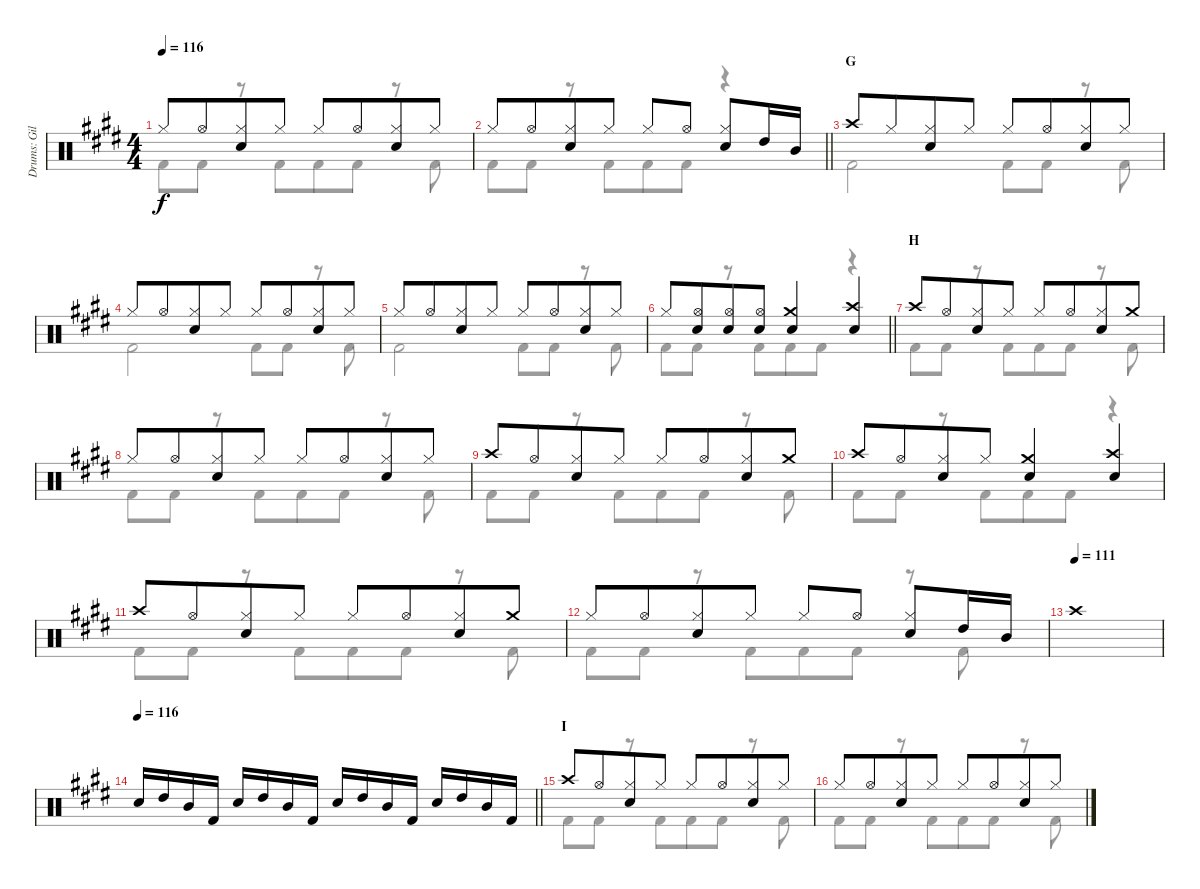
\track ("Drums: Gil" "Drums: Gil") {instrument percussion}
\staff {score}
\articulation defaults
\voice
\ts (4 4)
\tempo 116
\clef neutral
\ks e "Hi-Hat (closed)".8{dy f} "Hi-Hat (open)".8{beam merge}
("Hi-Hat (closed)" "Snare (hit) 2").8 "Hi-Hat (closed)".8 "Hi-Hat (closed)".8 "Hi-Hat (open)".8{beam merge} ("Hi-Hat (closed)" "Snare (hit) 2").8 "Hi-Hat (closed)".8 |
\barLineRight lightlight "Hi-Hat (closed)".8 "Hi-Hat (open)".8{beam merge}
("Hi-Hat (closed)" "Snare (hit) 2").8 "Hi-Hat (closed)".8 "Hi-Hat (closed)".8 "Hi-Hat (open)".8 ("Hi-Hat (closed)" "Snare (hit) 2").8{beam merge} "High Tom (hit)".16 "Mid Tom (hit)".16 |
\section ("" "G")
"Crash high (hit)".8 "Hi-Hat (closed)".8{beam merge} ("Hi-Hat (closed)" "Snare (hit) 2").8 "Hi-Hat (closed)".8 "Hi-Hat (closed)".8 "Hi-Hat (open)".8{beam merge} ("Hi-Hat (closed)" "Snare (hit) 2").8 "Hi-Hat (closed)".8 |
"Hi-Hat (closed)".8 "Hi-Hat (open)".8{beam merge} ("Hi-Hat (closed)" "Snare (hit) 2").8 "Hi-Hat (closed)".8 "Hi-Hat (closed)".8 "Hi-Hat (open)".8{beam merge} ("Hi-Hat (closed)" "Snare (hit) 2").8 "Hi-Hat (closed)".8 |
"Hi-Hat (closed)".8 "Hi-Hat (open)".8{beam merge} ("Hi-Hat (closed)" "Snare (hit) 2").8 "Hi-Hat (closed)".8 "Hi-Hat (closed)".8 "Hi-Hat (open)".8{beam merge} ("Hi-Hat (closed)" "Snare (hit) 2").8 "Hi-Hat (closed)".8 |
\barLineRight lightlight "Hi-Hat (closed)".8
("Hi-Hat (open)" "Snare (hit) 2").8{beam merge} ("Hi-Hat (open)" "Snare (hit) 2").8 ("Hi-Hat (open)" "Snare (hit) 2").8 ("Crash medium (hit)" "Snare (hit) 2").4 ("Crash high (hit)" "Snare (hit) 2").4 |
\section ("" "H")
"Crash high (hit)".8 "Hi-Hat (open)".8{beam merge} ("Hi-Hat (closed)" "Snare (hit) 2").8 "Hi-Hat (closed)".8 "Hi-Hat (closed)".8 "Hi-Hat (open)".8{beam merge} ("Hi-Hat (closed)" "Snare (hit) 2").8 "Crash medium (hit)".8 |
"Hi-Hat (closed)".8 "Hi-Hat (open)".8{beam merge} ("Hi-Hat (closed)" "Snare (hit) 2").8 "Hi-Hat (closed)".8 "Hi-Hat (closed)".8 "Hi-Hat (open)".8{beam merge} ("Hi-Hat (closed)" "Snare (hit) 2").8 "Hi-Hat (closed)".8 |
"Crash high (hit)".8 "Hi-Hat (open)".8{beam merge} ("Hi-Hat (closed)" "Snare (hit) 2").8 "Hi-Hat (closed)".8 "Hi-Hat (closed)".8 "Hi-Hat (open)".8{beam merge} ("Hi-Hat (closed)" "Snare (hit) 2").8 "Crash medium (hit)".8 |
"Crash high (hit)".8 "Hi-Hat (open)".8{beam merge} ("Hi-Hat (closed)" "Snare (hit) 2").8 "Hi-Hat (closed)".8 ("Crash medium (hit)" "Snare (hit) 2").4 ("Crash high (hit)" "Snare (hit) 2").4 |
"Crash high (hit)".8 "Hi-Hat (open)".8{beam merge} ("Hi-Hat (closed)" "Snare (hit) 2").8 "Hi-Hat (closed)".8 "Hi-Hat (closed)".8 "Hi-Hat (open)".8{beam merge} ("Hi-Hat (closed)" "Snare (hit) 2").8 "Crash medium (hit)".8 |
"Hi-Hat (closed)".8 "Hi-Hat (open)".8{beam merge} ("Hi-Hat (closed)" "Snare (hit) 2").8 "Hi-Hat (closed)".8 "Hi-Hat (closed)".8 "Hi-Hat (open)".8 ("Hi-Hat (closed)" "Snare (hit) 2").8{beam merge} "High Tom (hit)".16 "Mid Tom (hit)".16 |
\tempo (111)
"Crash high (hit)".1 |
\tempo 116
\barLineRight lightlight "Electric Snare (hit)".16 "High Tom (hit)".16 "Mid Tom (hit)".16 "Kick (hit) 2".16 "Electric Snare (hit)".16 "High Tom (hit)".16 "Mid Tom (hit)".16 "Kick (hit) 2".16 "Electric Snare (hit)".16 "High Tom (hit)".16 "Mid Tom (hit)".16 "Kick (hit) 2".16 "Electric Snare (hit)".16 "High Tom (hit)".16 "Mid Tom (hit)".16 "Kick (hit) 2".16
|
\section ("" "I")
"Crash high (hit)".8 "Hi-Hat (open)".8{beam merge} ("Hi-Hat (closed)" "Snare (hit) 2").8 "Hi-Hat (closed)".8 "Hi-Hat (closed)".8 "Hi-Hat (open)".8{beam merge} ("Hi-Hat (closed)" "Snare (hit) 2").8 "Hi-Hat (closed)".8 |
"Hi-Hat (closed)".8 "Hi-Hat (open)".8{beam merge} ("Hi-Hat (closed)" "Snare (hit) 2").8 "Hi-Hat (closed)".8 "Hi-Hat (closed)".8 "Hi-Hat (open)".8{beam merge} ("Hi-Hat (closed)" "Snare (hit) 2").8 "Hi-Hat (closed)".8
\voice
\clef neutral
\ottava regular
\simile none
\ks e "Kick (hit) 2".8{dy f} "Kick (hit) 2".8
r.8 "Kick (hit) 2".8{beam merge} "Kick (hit) 2".8 "Kick (hit) 2".8 r.8 "Kick (hit) 2".8 |
\barLineRight lightlight "Kick (hit) 2".8 "Kick (hit) 2".8
r.8 "Kick (hit) 2".8{beam merge} "Kick (hit) 2".8 "Kick (hit) 2".8 r.4 |
"Kick (hit) 2".2{beam merge} "Kick (hit) 2".8 "Kick (hit) 2".8 r.8 "Kick (hit) 2".8 |
"Kick (hit) 2".2{beam merge} "Kick (hit) 2".8 "Kick (hit) 2".8 r.8 "Kick (hit) 2".8 |
"Kick (hit) 2".2{beam merge} "Kick (hit) 2".8 "Kick (hit) 2".8 r.8 "Kick (hit) 2".8 |
\barLineRight lightlight "Kick (hit) 2".8 "Kick (hit) 2".8
r.8 "Kick (hit) 2".8{beam merge} "Kick (hit) 2".8 "Kick (hit) 2".8 r.4 |
"Kick (hit) 2".8 "Kick (hit) 2".8 r.8 "Kick (hit) 2".8{beam merge} "Kick (hit) 2".8 "Kick (hit) 2".8 r.8 "Kick (hit) 2".8 |
"Kick (hit) 2".8 "Kick (hit) 2".8 r.8 "Kick (hit) 2".8{beam merge} "Kick (hit) 2".8 "Kick (hit) 2".8 r.8 "Kick (hit) 2".8 |
"Kick (hit) 2".8 "Kick (hit) 2".8 r.8 "Kick (hit) 2".8{beam merge} "Kick (hit) 2".8 "Kick (hit) 2".8 r.8 "Kick (hit) 2".8 |
"Kick (hit) 2".8 "Kick (hit) 2".8 r.8 "Kick (hit) 2".8{beam merge} "Kick (hit) 2".8 "Kick (hit) 2".8 r.4 |
"Kick (hit) 2".8 "Kick (hit) 2".8 r.8 "Kick (hit) 2".8{beam merge} "Kick (hit) 2".8 "Kick (hit) 2".8 r.8 "Kick (hit) 2".8 |
"Kick (hit) 2".8 "Kick (hit) 2".8 r.8 "Kick (hit) 2".8{beam merge} "Kick (hit) 2".8 "Kick (hit) 2".8 r.8 "Kick (hit) 2".8 |
|
\barLineRight lightlight
|
"Kick (hit) 2".8 "Kick (hit) 2".8 r.8 "Kick (hit) 2".8{beam merge} "Kick (hit) 2".8 "Kick (hit) 2".8 r.8 "Kick (hit) 2".8 |
"Kick (hit) 2".8 "Kick (hit) 2".8 r.8 "Kick (hit) 2".8{beam merge} "Kick (hit) 2".8 "Kick (hit) 2".8 r.8 "Kick (hit) 2".8
